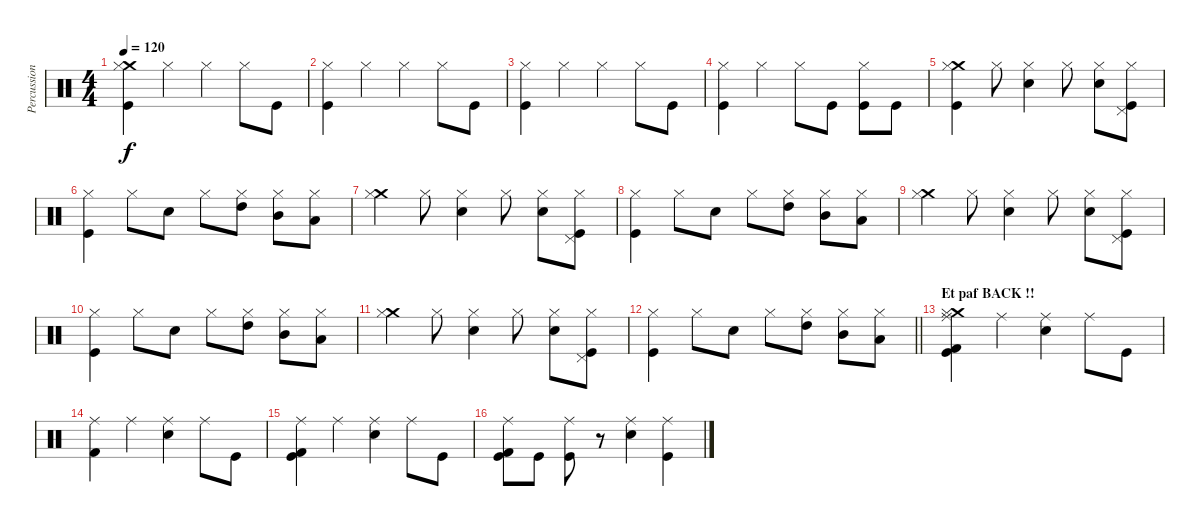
\track ("Percussions" "Percussion") {instrument percussion}
\staff {score}
\articulation defaults
\ts (4 4)
\tempo 120
\clef neutral
\ks c
("Kick (hit)" "Crash medium (hit)" "Hi-Hat (closed)").4{dy f} "Hi-Hat (closed)".4 "Hi-Hat (closed)".4 "Hi-Hat (closed)".8 "Kick (hit)".8 |
("Kick (hit)" "Hi-Hat (closed)").4 "Hi-Hat (closed)".4 "Hi-Hat (closed)".4 "Hi-Hat (closed)".8 "Kick (hit)".8 |
("Kick (hit)" "Hi-Hat (closed)").4 "Hi-Hat (closed)".4 "Hi-Hat (closed)".4 "Hi-Hat (closed)".8 "Kick (hit)".8 |
("Kick (hit)" "Hi-Hat (closed)").4 "Hi-Hat (closed)".4 "Hi-Hat (closed)".8 "Kick (hit)".8 ("Kick (hit)" "Hi-Hat (closed)").8 "Kick (hit)".8 |
("Kick (hit)" "Crash medium (hit)" "Hi-Hat (closed)").4 "Hi-Hat (closed)".8 ("Electric Snare (hit)" "Hi-Hat (closed)").4 "Hi-Hat (closed)".8 ("Electric Snare (hit)" "Hi-Hat (closed)").8 ("Kick (hit)" "Pedal Hi-Hat (hit)" "Hi-Hat (closed)").8 |
("Kick (hit)" "Hi-Hat (closed)").4 "Hi-Hat (closed)".8 "Electric Snare (hit)".8 "Hi-Hat (closed)".8 ("Hi-Hat (closed)" "High Tom (hit)").8 ("Hi-Hat (closed)" "Mid Tom (hit)").8 ("Hi-Hat (closed)" "Low Tom (hit)").8 |
("Crash medium (hit)" "Hi-Hat (closed)").4 "Hi-Hat (closed)".8 ("Electric Snare (hit)" "Hi-Hat (closed)").4 "Hi-Hat (closed)".8 ("Electric Snare (hit)" "Hi-Hat (closed)").8 ("Kick (hit)" "Pedal Hi-Hat (hit)" "Hi-Hat (closed)").8 |
("Kick (hit)" "Hi-Hat (closed)").4 "Hi-Hat (closed)".8 "Electric Snare (hit)".8 "Hi-Hat (closed)".8 ("Hi-Hat (closed)" "High Tom (hit)").8 ("Hi-Hat (closed)" "Mid Tom (hit)").8 ("Hi-Hat (closed)" "Low Tom (hit)").8 |
("Crash medium (hit)" "Hi-Hat (closed)").4 "Hi-Hat (closed)".8 ("Electric Snare (hit)" "Hi-Hat (closed)").4 "Hi-Hat (closed)".8 ("Electric Snare (hit)" "Hi-Hat (closed)").8 ("Kick (hit)" "Pedal Hi-Hat (hit)" "Hi-Hat (closed)").8 |
("Kick (hit)" "Hi-Hat (closed)").4 "Hi-Hat (closed)".8 "Electric Snare (hit)".8 "Hi-Hat (closed)".8 ("Hi-Hat (closed)" "High Tom (hit)").8 ("Hi-Hat (closed)" "Mid Tom (hit)").8 ("Hi-Hat (closed)" "Low Tom (hit)").8 |
("Crash medium (hit)" "Hi-Hat (closed)").4 "Hi-Hat (closed)".8 ("Electric Snare (hit)" "Hi-Hat (closed)").4 "Hi-Hat (closed)".8 ("Electric Snare (hit)" "Hi-Hat (closed)").8 ("Kick (hit)" "Pedal Hi-Hat (hit)" "Hi-Hat (closed)").8 |
\barLineRight lightlight
("Kick (hit)" "Hi-Hat (closed)").4 "Hi-Hat (closed)".8 "Electric Snare (hit)".8 "Hi-Hat (closed)".8 ("Hi-Hat (closed)" "High Tom (hit)").8 ("Hi-Hat (closed)" "Mid Tom (hit)").8 ("Hi-Hat (closed)" "Low Tom (hit)").8 |
\section ("" "Et paf BACK !!")
("Kick (hit) 2" "Crash medium (hit)" "Kick (hit)" "Ride (middle)" "Hi-Hat (closed)").4 "Ride (middle)".4 ("Electric Snare (hit)" "Ride (middle)").4 "Ride (middle)".8 "Kick (hit)".8 |
("Kick (hit) 2" "Ride (middle)").4 "Ride (middle)".4 ("Electric Snare (hit)" "Ride (middle)").4 "Ride (middle)".8 "Kick (hit)".8 |
("Kick (hit) 2" "Kick (hit)" "Ride (middle)").4 "Ride (middle)".4 ("Electric Snare (hit)" "Ride (middle)").4 "Ride (middle)".8 "Kick (hit)".8 |
("Kick (hit) 2" "Kick (hit)" "Ride (middle)").8 "Kick (hit)".8 ("Kick (hit)" "Ride (middle)").8 r.8 ("Electric Snare (hit)" "Ride (middle)").4 ("Kick (hit)" "Ride (middle)").4
